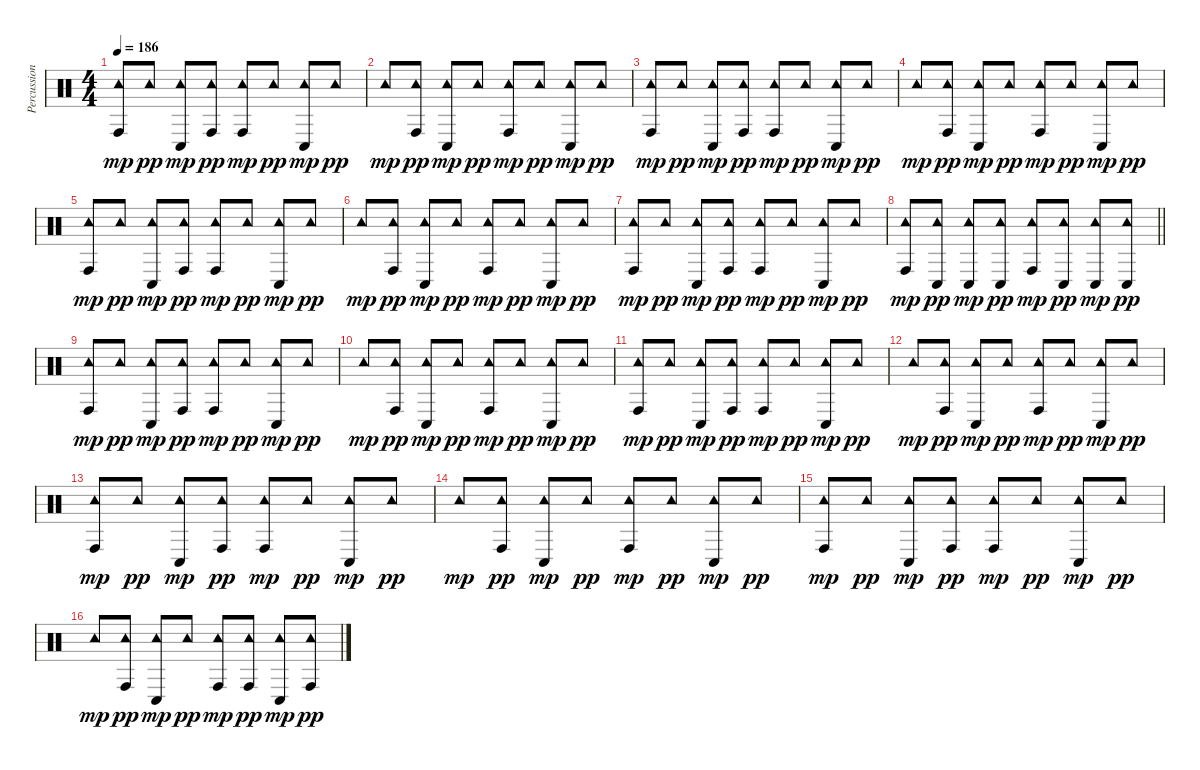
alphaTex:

\track ("Percussion" "Percussion") {instrument percussion}
\staff {score}
\articulation defaults
\ts (4 4)
\tempo 186
\clef neutral
\ks c
("Tambourine (hit)" "Conga high (hit)").8{dy mp} "Tambourine (hit)".8{dy pp} ("Tambourine (hit)" "Conga low (hit)").8{dy mp} ("Tambourine (hit)" "Conga high (hit)").8{dy pp} ("Tambourine (hit)" "Conga high (hit)").8{dy mp} "Tambourine (hit)".8{dy pp} ("Tambourine (hit)" "Conga low (hit)").8{dy mp} "Tambourine (hit)".8{dy pp} |
"Tambourine (hit)".8{dy mp} ("Tambourine (hit)" "Conga high (hit)").8{dy pp} ("Tambourine (hit)" "Conga low (hit)").8{dy mp} "Tambourine (hit)".8{dy pp} ("Tambourine (hit)" "Conga high (hit)").8{dy mp} "Tambourine (hit)".8{dy pp} ("Tambourine (hit)" "Conga low (hit)").8{dy mp} "Tambourine (hit)".8{dy pp} |
("Tambourine (hit)" "Conga high (hit)").8{dy mp} "Tambourine (hit)".8{dy pp} ("Tambourine (hit)" "Conga low (hit)").8{dy mp} ("Tambourine (hit)" "Conga high (hit)").8{dy pp} ("Tambourine (hit)" "Conga high (hit)").8{dy mp} "Tambourine (hit)".8{dy pp} ("Tambourine (hit)" "Conga low (hit)").8{dy mp} "Tambourine (hit)".8{dy pp} |
"Tambourine (hit)".8{dy mp} ("Tambourine (hit)" "Conga high (hit)").8{dy pp} ("Tambourine (hit)" "Conga low (hit)").8{dy mp} "Tambourine (hit)".8{dy pp} ("Tambourine (hit)" "Conga high (hit)").8{dy mp} "Tambourine (hit)".8{dy pp} ("Tambourine (hit)" "Conga low (hit)").8{dy mp} "Tambourine (hit)".8{dy pp} |
("Tambourine (hit)" "Conga high (hit)").8{dy mp} "Tambourine (hit)".8{dy pp} ("Tambourine (hit)" "Conga low (hit)").8{dy mp} ("Tambourine (hit)" "Conga high (hit)").8{dy pp} ("Tambourine (hit)" "Conga high (hit)").8{dy mp} "Tambourine (hit)".8{dy pp} ("Tambourine (hit)" "Conga low (hit)").8{dy mp} "Tambourine (hit)".8{dy pp} |
"Tambourine (hit)".8{dy mp} ("Tambourine (hit)" "Conga high (hit)").8{dy pp} ("Tambourine (hit)" "Conga low (hit)").8{dy mp} "Tambourine (hit)".8{dy pp} ("Tambourine (hit)" "Conga high (hit)").8{dy mp} "Tambourine (hit)".8{dy pp} ("Tambourine (hit)" "Conga low (hit)").8{dy mp} "Tambourine (hit)".8{dy pp} |
("Tambourine (hit)" "Conga high (hit)").8{dy mp} "Tambourine (hit)".8{dy pp} ("Tambourine (hit)" "Conga low (hit)").8{dy mp} ("Tambourine (hit)" "Conga high (hit)").8{dy pp} ("Tambourine (hit)" "Conga high (hit)").8{dy mp} "Tambourine (hit)".8{dy pp} ("Tambourine (hit)" "Conga low (hit)").8{dy mp} "Tambourine (hit)".8{dy pp} |
\barLineRight lightlight
("Tambourine (hit)" "Conga high (hit)").8{dy mp} ("Tambourine (hit)" "Conga low (hit)").8{dy pp} ("Tambourine (hit)" "Conga low (hit)").8{dy mp} ("Tambourine (hit)" "Conga low (hit)").8{dy pp} ("Tambourine (hit)" "Conga high (hit)").8{dy mp} ("Tambourine (hit)" "Conga low (hit)").8{dy pp} ("Tambourine (hit)" "Conga low (hit)").8{dy mp} ("Tambourine (hit)" "Conga low (hit)").8{dy pp} |
\section ("" "")
("Tambourine (hit)" "Conga high (hit)").8{dy mp} "Tambourine (hit)".8{dy pp} ("Tambourine (hit)" "Conga low (hit)").8{dy mp} ("Tambourine (hit)" "Conga high (hit)").8{dy pp} ("Tambourine (hit)" "Conga high (hit)").8{dy mp} "Tambourine (hit)".8{dy pp} ("Tambourine (hit)" "Conga low (hit)").8{dy mp} "Tambourine (hit)".8{dy pp} |
"Tambourine (hit)".8{dy mp} ("Tambourine (hit)" "Conga high (hit)").8{dy pp} ("Tambourine (hit)" "Conga low (hit)").8{dy mp} "Tambourine (hit)".8{dy pp} ("Tambourine (hit)" "Conga high (hit)").8{dy mp} "Tambourine (hit)".8{dy pp} ("Tambourine (hit)" "Conga low (hit)").8{dy mp} "Tambourine (hit)".8{dy pp} |
("Tambourine (hit)" "Conga high (hit)").8{dy mp} "Tambourine (hit)".8{dy pp} ("Tambourine (hit)" "Conga low (hit)").8{dy mp} ("Tambourine (hit)" "Conga high (hit)").8{dy pp} ("Tambourine (hit)" "Conga high (hit)").8{dy mp} "Tambourine (hit)".8{dy pp} ("Tambourine (hit)" "Conga low (hit)").8{dy mp} "Tambourine (hit)".8{dy pp} |
"Tambourine (hit)".8{dy mp} ("Tambourine (hit)" "Conga high (hit)").8{dy pp} ("Tambourine (hit)" "Conga low (hit)").8{dy mp} "Tambourine (hit)".8{dy pp} ("Tambourine (hit)" "Conga high (hit)").8{dy mp} "Tambourine (hit)".8{dy pp} ("Tambourine (hit)" "Conga low (hit)").8{dy mp} "Tambourine (hit)".8{dy pp} |
("Tambourine (hit)" "Conga high (hit)").8{dy mp} "Tambourine (hit)".8{dy pp} ("Tambourine (hit)" "Conga low (hit)").8{dy mp} ("Tambourine (hit)" "Conga high (hit)").8{dy pp} ("Tambourine (hit)" "Conga high (hit)").8{dy mp} "Tambourine (hit)".8{dy pp} ("Tambourine (hit)" "Conga low (hit)").8{dy mp} "Tambourine (hit)".8{dy pp} |
"Tambourine (hit)".8{dy mp} ("Tambourine (hit)" "Conga high (hit)").8{dy pp} ("Tambourine (hit)" "Conga low (hit)").8{dy mp} "Tambourine (hit)".8{dy pp} ("Tambourine (hit)" "Conga high (hit)").8{dy mp} "Tambourine (hit)".8{dy pp} ("Tambourine (hit)" "Conga low (hit)").8{dy mp} "Tambourine (hit)".8{dy pp} |
("Tambourine (hit)" "Conga high (hit)").8{dy mp} "Tambourine (hit)".8{dy pp} ("Tambourine (hit)" "Conga low (hit)").8{dy mp} ("Tambourine (hit)" "Conga high (hit)").8{dy pp} ("Tambourine (hit)" "Conga high (hit)").8{dy mp} "Tambourine (hit)".8{dy pp} ("Tambourine (hit)" "Conga low (hit)").8{dy mp} "Tambourine (hit)".8{dy pp} |
"Tambourine (hit)".8{dy mp} ("Tambourine (hit)" "Conga high (hit)").8{dy pp} ("Tambourine (hit)" "Conga low (hit)").8{dy mp} "Tambourine (hit)".8{dy pp} ("Tambourine (hit)" "Conga high (hit)").8{dy mp} ("Tambourine (hit)" "Conga high (hit)").8{dy pp} ("Tambourine (hit)" "Conga low (hit)").8{dy mp} ("Tambourine (hit)" "Conga high (hit)").8{dy pp}
